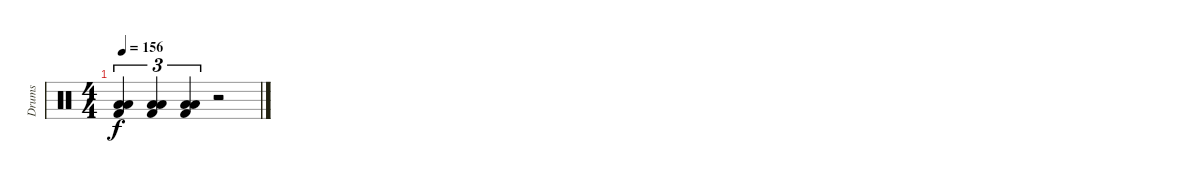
\track ("Drums" "Drums") {instrument percussion}
\staff {score}
\articulation defaults
\ts (4 4)
\tempo 156
\clef neutral
\ks c
("Low Tom (hit)" "Low Floor Tom (hit)" "Kick (hit) 2").4{tu (3 2) dy f} ("Low Tom (hit)" "Low Floor Tom (hit)" "Kick (hit) 2").4{tu (3 2)} ("Low Tom (hit)" "Low Floor Tom (hit)" "Kick (hit) 2").4{tu (3 2)} r.2
